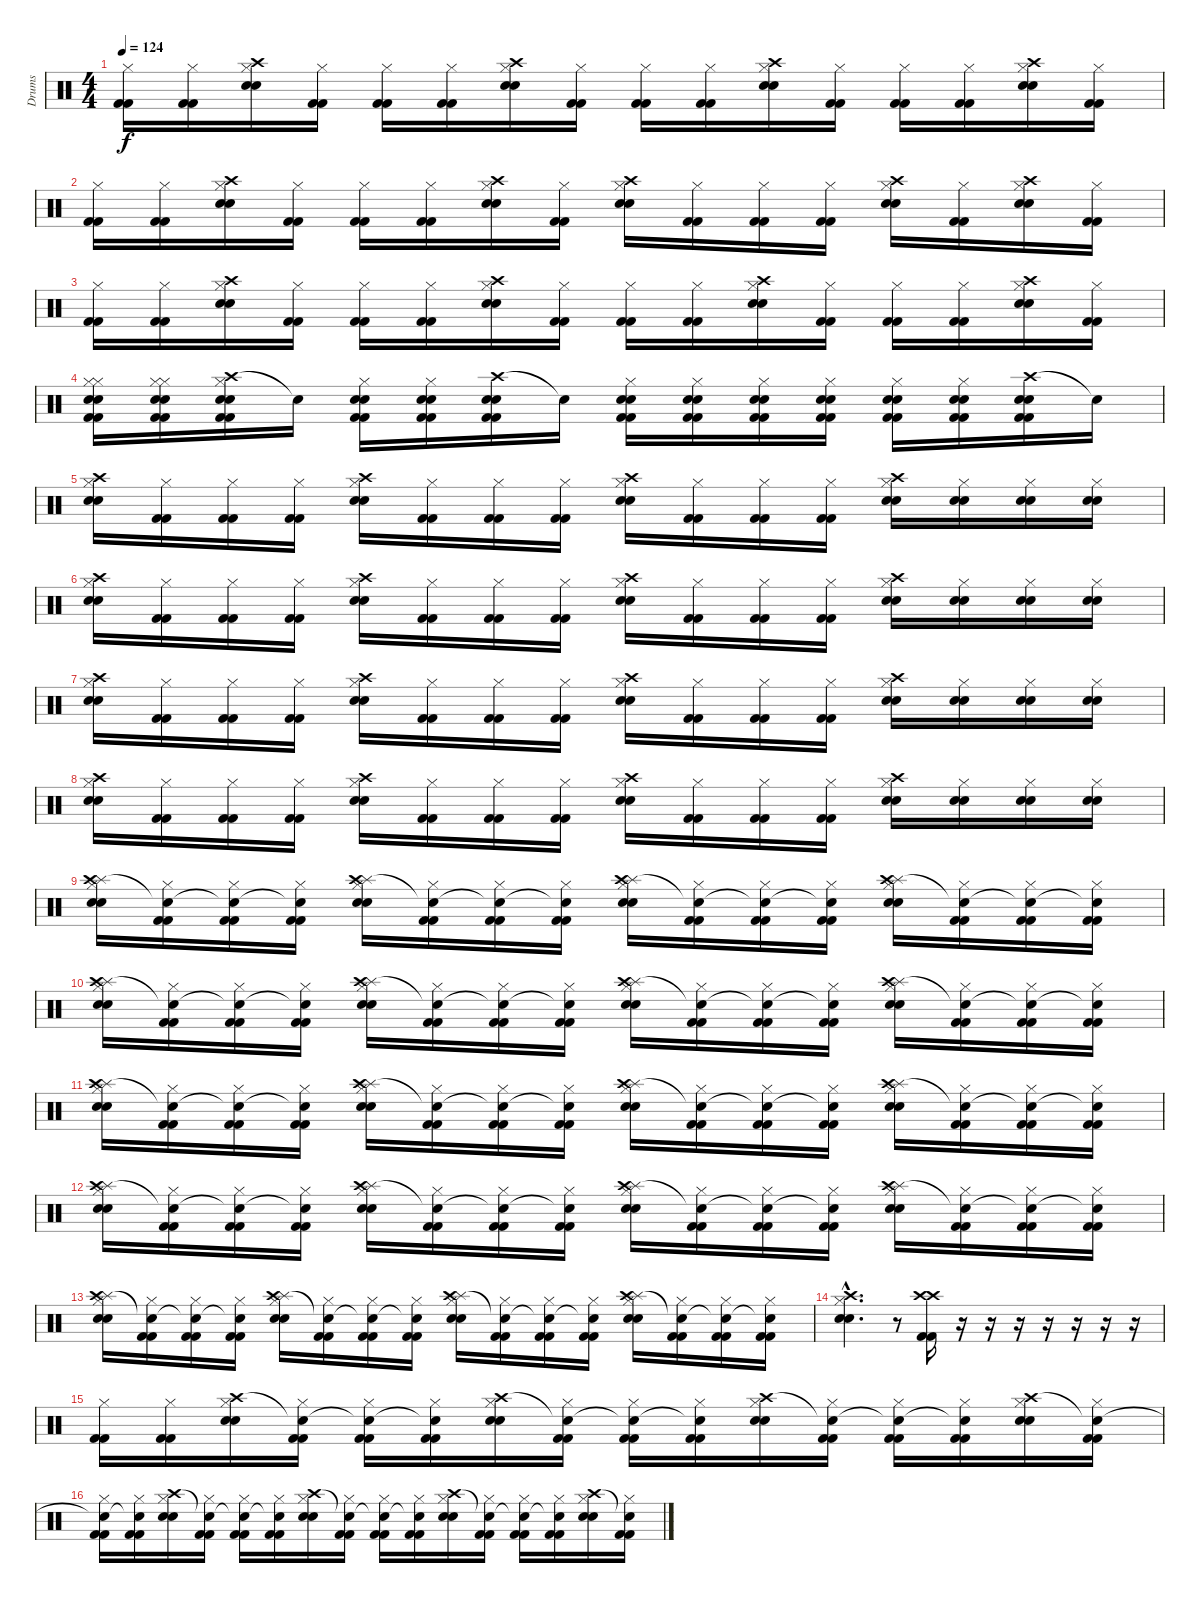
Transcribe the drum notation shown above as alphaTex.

\track ("Drums" "Drums") {instrument percussion}
\staff {score}
\articulation defaults
\ts (4 4)
\tempo 124
\clef neutral
\ks c
("Hi-Hat (closed)" "Kick (hit) 2" "Kick (hit) 2").16{dy f} ("Hi-Hat (closed)" "Kick (hit) 2" "Kick (hit) 2").16 ("Crash high (hit)" "Hi-Hat (closed)" "Snare (hit) 2" "Snare (hit) 2").16 ("Hi-Hat (closed)" "Kick (hit) 2" "Kick (hit) 2").16 ("Hi-Hat (closed)" "Kick (hit) 2" "Kick (hit) 2").16 ("Hi-Hat (closed)" "Kick (hit) 2" "Kick (hit) 2").16 ("Crash high (hit)" "Hi-Hat (closed)" "Snare (hit) 2" "Snare (hit) 2").16 ("Hi-Hat (closed)" "Kick (hit) 2" "Kick (hit) 2").16 ("Hi-Hat (closed)" "Kick (hit) 2" "Kick (hit) 2").16 ("Hi-Hat (closed)" "Kick (hit) 2" "Kick (hit) 2").16 ("Crash high (hit)" "Hi-Hat (closed)" "Snare (hit) 2" "Snare (hit) 2").16 ("Hi-Hat (closed)" "Kick (hit) 2" "Kick (hit) 2").16 ("Hi-Hat (closed)" "Kick (hit) 2" "Kick (hit) 2").16 ("Hi-Hat (closed)" "Kick (hit) 2" "Kick (hit) 2").16 ("Crash high (hit)" "Hi-Hat (closed)" "Snare (hit) 2" "Snare (hit) 2").16 ("Hi-Hat (closed)" "Kick (hit) 2" "Kick (hit) 2").16 |
("Hi-Hat (closed)" "Kick (hit) 2" "Kick (hit) 2").16 ("Hi-Hat (closed)" "Kick (hit) 2" "Kick (hit) 2").16 ("Crash high (hit)" "Hi-Hat (closed)" "Snare (hit) 2" "Snare (hit) 2").16 ("Hi-Hat (closed)" "Kick (hit) 2" "Kick (hit) 2").16 ("Hi-Hat (closed)" "Kick (hit) 2" "Kick (hit) 2").16 ("Hi-Hat (closed)" "Kick (hit) 2" "Kick (hit) 2").16 ("Crash high (hit)" "Hi-Hat (closed)" "Snare (hit) 2" "Snare (hit) 2").16 ("Hi-Hat (closed)" "Kick (hit) 2" "Kick (hit) 2").16 ("Crash high (hit)" "Hi-Hat (closed)" "Snare (hit) 2" "Snare (hit) 2").16 ("Hi-Hat (closed)" "Kick (hit) 2" "Kick (hit) 2").16 ("Hi-Hat (closed)" "Kick (hit) 2" "Kick (hit) 2").16 ("Hi-Hat (closed)" "Kick (hit) 2" "Kick (hit) 2").16 ("Crash high (hit)" "Hi-Hat (closed)" "Snare (hit) 2" "Snare (hit) 2").16 ("Hi-Hat (closed)" "Kick (hit) 2" "Kick (hit) 2").16 ("Crash high (hit)" "Hi-Hat (closed)" "Snare (hit) 2" "Snare (hit) 2").16 ("Hi-Hat (closed)" "Kick (hit) 2" "Kick (hit) 2").16 |
("Hi-Hat (closed)" "Kick (hit) 2" "Kick (hit) 2").16 ("Hi-Hat (closed)" "Kick (hit) 2" "Kick (hit) 2").16 ("Crash high (hit)" "Hi-Hat (closed)" "Snare (hit) 2" "Snare (hit) 2").16 ("Hi-Hat (closed)" "Kick (hit) 2" "Kick (hit) 2").16 ("Hi-Hat (closed)" "Kick (hit) 2" "Kick (hit) 2").16 ("Hi-Hat (closed)" "Kick (hit) 2" "Kick (hit) 2").16 ("Crash high (hit)" "Hi-Hat (closed)" "Snare (hit) 2" "Snare (hit) 2").16 ("Hi-Hat (closed)" "Kick (hit) 2" "Kick (hit) 2").16 ("Hi-Hat (closed)" "Kick (hit) 2" "Kick (hit) 2").16 ("Hi-Hat (closed)" "Kick (hit) 2" "Kick (hit) 2").16 ("Crash high (hit)" "Hi-Hat (closed)" "Snare (hit) 2" "Snare (hit) 2").16 ("Hi-Hat (closed)" "Kick (hit) 2" "Kick (hit) 2").16 ("Hi-Hat (closed)" "Kick (hit) 2" "Kick (hit) 2").16 ("Hi-Hat (closed)" "Kick (hit) 2" "Kick (hit) 2").16 ("Crash high (hit)" "Hi-Hat (closed)" "Snare (hit) 2" "Snare (hit) 2").16 ("Hi-Hat (closed)" "Kick (hit) 2" "Kick (hit) 2").16 |
("Hi-Hat (closed)" "Hi-Hat (closed)" "Snare (hit) 2" "Kick (hit) 2" "Snare (hit) 2" "Kick (hit) 2").16 ("Hi-Hat (closed)" "Hi-Hat (closed)" "Snare (hit) 2" "Kick (hit) 2" "Snare (hit) 2" "Kick (hit) 2").16 ("Crash high (hit)" "Hi-Hat (closed)" "Snare (hit) 2" "Kick (hit) 2" "Snare (hit) 2" "Kick (hit) 2").16 "Snare (hit)"{t}.16 ("Hi-Hat (closed)" "Snare (hit) 2" "Kick (hit) 2" "Snare (hit) 2" "Kick (hit) 2").16 ("Hi-Hat (closed)" "Snare (hit) 2" "Kick (hit) 2" "Snare (hit) 2" "Kick (hit) 2").16 ("Crash high (hit)" "Snare (hit) 2" "Kick (hit) 2" "Snare (hit) 2" "Kick (hit) 2").16 "Snare (hit)"{t}.16 ("Hi-Hat (closed)" "Snare (hit) 2" "Kick (hit) 2" "Snare (hit) 2" "Kick (hit) 2").16 ("Hi-Hat (closed)" "Snare (hit) 2" "Kick (hit) 2" "Snare (hit) 2" "Kick (hit) 2").16 ("Hi-Hat (closed)" "Snare (hit) 2" "Kick (hit) 2" "Snare (hit) 2" "Kick (hit) 2").16 ("Hi-Hat (closed)" "Snare (hit) 2" "Kick (hit) 2" "Snare (hit) 2" "Kick (hit) 2").16 ("Hi-Hat (closed)" "Snare (hit) 2" "Kick (hit) 2" "Snare (hit) 2" "Kick (hit) 2").16 ("Hi-Hat (closed)" "Snare (hit) 2" "Kick (hit) 2" "Snare (hit) 2" "Kick (hit) 2").16 ("Crash high (hit)" "Snare (hit) 2" "Kick (hit) 2" "Snare (hit) 2" "Kick (hit) 2").16 "Snare (hit)"{t}.16 |
("Crash high (hit)" "Hi-Hat (closed)" "Snare (hit) 2" "Snare (hit) 2").16 ("Hi-Hat (closed)" "Kick (hit) 2" "Kick (hit) 2").16 ("Hi-Hat (closed)" "Kick (hit) 2" "Kick (hit) 2").16 ("Hi-Hat (closed)" "Kick (hit) 2" "Kick (hit) 2").16 ("Crash high (hit)" "Hi-Hat (closed)" "Snare (hit) 2" "Snare (hit) 2").16 ("Hi-Hat (closed)" "Kick (hit) 2" "Kick (hit) 2").16 ("Hi-Hat (closed)" "Kick (hit) 2" "Kick (hit) 2").16 ("Hi-Hat (closed)" "Kick (hit) 2" "Kick (hit) 2").16 ("Crash high (hit)" "Hi-Hat (closed)" "Snare (hit) 2" "Snare (hit) 2").16 ("Hi-Hat (closed)" "Kick (hit) 2" "Kick (hit) 2").16 ("Hi-Hat (closed)" "Kick (hit) 2" "Kick (hit) 2").16 ("Hi-Hat (closed)" "Kick (hit) 2" "Kick (hit) 2").16 ("Crash high (hit)" "Hi-Hat (closed)" "Snare (hit) 2" "Snare (hit) 2").16 ("Hi-Hat (closed)" "Snare (hit) 2" "Snare (hit) 2").16 ("Hi-Hat (closed)" "Snare (hit) 2" "Snare (hit) 2").16 ("Hi-Hat (closed)" "Snare (hit) 2" "Snare (hit) 2").16 |
("Crash high (hit)" "Hi-Hat (closed)" "Snare (hit) 2" "Snare (hit) 2").16 ("Hi-Hat (closed)" "Kick (hit) 2" "Kick (hit) 2").16 ("Hi-Hat (closed)" "Kick (hit) 2" "Kick (hit) 2").16 ("Hi-Hat (closed)" "Kick (hit) 2" "Kick (hit) 2").16 ("Crash high (hit)" "Hi-Hat (closed)" "Snare (hit) 2" "Snare (hit) 2").16 ("Hi-Hat (closed)" "Kick (hit) 2" "Kick (hit) 2").16 ("Hi-Hat (closed)" "Kick (hit) 2" "Kick (hit) 2").16 ("Hi-Hat (closed)" "Kick (hit) 2" "Kick (hit) 2").16 ("Crash high (hit)" "Hi-Hat (closed)" "Snare (hit) 2" "Snare (hit) 2").16 ("Hi-Hat (closed)" "Kick (hit) 2" "Kick (hit) 2").16 ("Hi-Hat (closed)" "Kick (hit) 2" "Kick (hit) 2").16 ("Hi-Hat (closed)" "Kick (hit) 2" "Kick (hit) 2").16 ("Crash high (hit)" "Hi-Hat (closed)" "Snare (hit) 2" "Snare (hit) 2").16 ("Hi-Hat (closed)" "Snare (hit) 2" "Snare (hit) 2").16 ("Hi-Hat (closed)" "Snare (hit) 2" "Snare (hit) 2").16 ("Hi-Hat (closed)" "Snare (hit) 2" "Snare (hit) 2").16 |
("Crash high (hit)" "Hi-Hat (closed)" "Snare (hit) 2" "Snare (hit) 2").16 ("Hi-Hat (closed)" "Kick (hit) 2" "Kick (hit) 2").16 ("Hi-Hat (closed)" "Kick (hit) 2" "Kick (hit) 2").16 ("Hi-Hat (closed)" "Kick (hit) 2" "Kick (hit) 2").16 ("Crash high (hit)" "Hi-Hat (closed)" "Snare (hit) 2" "Snare (hit) 2").16 ("Hi-Hat (closed)" "Kick (hit) 2" "Kick (hit) 2").16 ("Hi-Hat (closed)" "Kick (hit) 2" "Kick (hit) 2").16 ("Hi-Hat (closed)" "Kick (hit) 2" "Kick (hit) 2").16 ("Crash high (hit)" "Hi-Hat (closed)" "Snare (hit) 2" "Snare (hit) 2").16 ("Hi-Hat (closed)" "Kick (hit) 2" "Kick (hit) 2").16 ("Hi-Hat (closed)" "Kick (hit) 2" "Kick (hit) 2").16 ("Hi-Hat (closed)" "Kick (hit) 2" "Kick (hit) 2").16 ("Crash high (hit)" "Hi-Hat (closed)" "Snare (hit) 2" "Snare (hit) 2").16 ("Hi-Hat (closed)" "Snare (hit) 2" "Snare (hit) 2").16 ("Hi-Hat (closed)" "Snare (hit) 2" "Snare (hit) 2").16 ("Hi-Hat (closed)" "Snare (hit) 2" "Snare (hit) 2").16 |
("Crash high (hit)" "Hi-Hat (closed)" "Snare (hit) 2" "Snare (hit) 2").16 ("Hi-Hat (closed)" "Kick (hit) 2" "Kick (hit) 2").16 ("Hi-Hat (closed)" "Kick (hit) 2" "Kick (hit) 2").16 ("Hi-Hat (closed)" "Kick (hit) 2" "Kick (hit) 2").16 ("Crash high (hit)" "Hi-Hat (closed)" "Snare (hit) 2" "Snare (hit) 2").16 ("Hi-Hat (closed)" "Kick (hit) 2" "Kick (hit) 2").16 ("Hi-Hat (closed)" "Kick (hit) 2" "Kick (hit) 2").16 ("Hi-Hat (closed)" "Kick (hit) 2" "Kick (hit) 2").16 ("Crash high (hit)" "Hi-Hat (closed)" "Snare (hit) 2" "Snare (hit) 2").16 ("Hi-Hat (closed)" "Kick (hit) 2" "Kick (hit) 2").16 ("Hi-Hat (closed)" "Kick (hit) 2" "Kick (hit) 2").16 ("Hi-Hat (closed)" "Kick (hit) 2" "Kick (hit) 2").16 ("Crash high (hit)" "Hi-Hat (closed)" "Snare (hit) 2" "Snare (hit) 2").16 ("Hi-Hat (closed)" "Snare (hit) 2" "Snare (hit) 2").16 ("Hi-Hat (closed)" "Snare (hit) 2" "Snare (hit) 2").16 ("Hi-Hat (closed)" "Snare (hit) 2" "Snare (hit) 2").16 |
("Splash (hit)" "Crash high (hit)" "Hi-Hat (closed)" "Snare (hit) 2" "Snare (hit) 2").16 ("Snare (hit)"{t} "Hi-Hat (closed)" "Kick (hit) 2" "Kick (hit) 2").16 ("Snare (hit)"{t} "Hi-Hat (closed)" "Kick (hit) 2" "Kick (hit) 2").16 ("Snare (hit)"{t} "Hi-Hat (closed)" "Kick (hit) 2" "Kick (hit) 2").16 ("Splash (hit)" "Crash high (hit)" "Hi-Hat (closed)" "Snare (hit) 2" "Snare (hit) 2").16 ("Snare (hit)"{t} "Hi-Hat (closed)" "Kick (hit) 2" "Kick (hit) 2").16 ("Snare (hit)"{t} "Hi-Hat (closed)" "Kick (hit) 2" "Kick (hit) 2").16 ("Snare (hit)"{t} "Hi-Hat (closed)" "Kick (hit) 2" "Kick (hit) 2").16 ("Splash (hit)" "Crash high (hit)" "Hi-Hat (closed)" "Snare (hit) 2" "Snare (hit) 2").16 ("Snare (hit)"{t} "Hi-Hat (closed)" "Kick (hit) 2" "Kick (hit) 2").16 ("Snare (hit)"{t} "Hi-Hat (closed)" "Kick (hit) 2" "Kick (hit) 2").16 ("Snare (hit)"{t} "Hi-Hat (closed)" "Kick (hit) 2" "Kick (hit) 2").16 ("Splash (hit)" "Crash high (hit)" "Hi-Hat (closed)" "Snare (hit) 2" "Snare (hit) 2").16 ("Snare (hit)"{t} "Hi-Hat (closed)" "Kick (hit) 2" "Kick (hit) 2").16 ("Snare (hit)"{t} "Hi-Hat (closed)" "Kick (hit) 2" "Kick (hit) 2").16 ("Snare (hit)"{t} "Hi-Hat (closed)" "Kick (hit) 2" "Kick (hit) 2").16 |
("Splash (hit)" "Crash high (hit)" "Hi-Hat (closed)" "Snare (hit) 2" "Snare (hit) 2").16 ("Snare (hit)"{t} "Hi-Hat (closed)" "Kick (hit) 2" "Kick (hit) 2").16 ("Snare (hit)"{t} "Hi-Hat (closed)" "Kick (hit) 2" "Kick (hit) 2").16 ("Snare (hit)"{t} "Hi-Hat (closed)" "Kick (hit) 2" "Kick (hit) 2").16 ("Splash (hit)" "Crash high (hit)" "Hi-Hat (closed)" "Snare (hit) 2" "Snare (hit) 2").16 ("Snare (hit)"{t} "Hi-Hat (closed)" "Kick (hit) 2" "Kick (hit) 2").16 ("Snare (hit)"{t} "Hi-Hat (closed)" "Kick (hit) 2" "Kick (hit) 2").16 ("Snare (hit)"{t} "Hi-Hat (closed)" "Kick (hit) 2" "Kick (hit) 2").16 ("Splash (hit)" "Crash high (hit)" "Hi-Hat (closed)" "Snare (hit) 2" "Snare (hit) 2").16 ("Snare (hit)"{t} "Hi-Hat (closed)" "Kick (hit) 2" "Kick (hit) 2").16 ("Snare (hit)"{t} "Hi-Hat (closed)" "Kick (hit) 2" "Kick (hit) 2").16 ("Snare (hit)"{t} "Hi-Hat (closed)" "Kick (hit) 2" "Kick (hit) 2").16 ("Splash (hit)" "Crash high (hit)" "Hi-Hat (closed)" "Snare (hit) 2" "Snare (hit) 2").16 ("Snare (hit)"{t} "Hi-Hat (closed)" "Kick (hit) 2" "Kick (hit) 2").16 ("Snare (hit)"{t} "Hi-Hat (closed)" "Kick (hit) 2" "Kick (hit) 2").16 ("Snare (hit)"{t} "Hi-Hat (closed)" "Kick (hit) 2" "Kick (hit) 2").16 |
("Splash (hit)" "Crash high (hit)" "Hi-Hat (closed)" "Snare (hit) 2" "Snare (hit) 2").16 ("Snare (hit)"{t} "Hi-Hat (closed)" "Kick (hit) 2" "Kick (hit) 2").16 ("Snare (hit)"{t} "Hi-Hat (closed)" "Kick (hit) 2" "Kick (hit) 2").16 ("Snare (hit)"{t} "Hi-Hat (closed)" "Kick (hit) 2" "Kick (hit) 2").16 ("Splash (hit)" "Crash high (hit)" "Hi-Hat (closed)" "Snare (hit) 2" "Snare (hit) 2").16 ("Snare (hit)"{t} "Hi-Hat (closed)" "Kick (hit) 2" "Kick (hit) 2").16 ("Snare (hit)"{t} "Hi-Hat (closed)" "Kick (hit) 2" "Kick (hit) 2").16 ("Snare (hit)"{t} "Hi-Hat (closed)" "Kick (hit) 2" "Kick (hit) 2").16 ("Splash (hit)" "Crash high (hit)" "Hi-Hat (closed)" "Snare (hit) 2" "Snare (hit) 2").16 ("Snare (hit)"{t} "Hi-Hat (closed)" "Kick (hit) 2" "Kick (hit) 2").16 ("Snare (hit)"{t} "Hi-Hat (closed)" "Kick (hit) 2" "Kick (hit) 2").16 ("Snare (hit)"{t} "Hi-Hat (closed)" "Kick (hit) 2" "Kick (hit) 2").16 ("Splash (hit)" "Crash high (hit)" "Hi-Hat (closed)" "Snare (hit) 2" "Snare (hit) 2").16 ("Snare (hit)"{t} "Hi-Hat (closed)" "Kick (hit) 2" "Kick (hit) 2").16 ("Snare (hit)"{t} "Hi-Hat (closed)" "Kick (hit) 2" "Kick (hit) 2").16 ("Snare (hit)"{t} "Hi-Hat (closed)" "Kick (hit) 2" "Kick (hit) 2").16 |
("Splash (hit)" "Crash high (hit)" "Hi-Hat (closed)" "Snare (hit) 2" "Snare (hit) 2").16 ("Snare (hit)"{t} "Hi-Hat (closed)" "Kick (hit) 2" "Kick (hit) 2").16 ("Snare (hit)"{t} "Hi-Hat (closed)" "Kick (hit) 2" "Kick (hit) 2").16 ("Snare (hit)"{t} "Hi-Hat (closed)" "Kick (hit) 2" "Kick (hit) 2").16 ("Splash (hit)" "Crash high (hit)" "Hi-Hat (closed)" "Snare (hit) 2" "Snare (hit) 2").16 ("Snare (hit)"{t} "Hi-Hat (closed)" "Kick (hit) 2" "Kick (hit) 2").16 ("Snare (hit)"{t} "Hi-Hat (closed)" "Kick (hit) 2" "Kick (hit) 2").16 ("Snare (hit)"{t} "Hi-Hat (closed)" "Kick (hit) 2" "Kick (hit) 2").16 ("Splash (hit)" "Crash high (hit)" "Hi-Hat (closed)" "Snare (hit) 2" "Snare (hit) 2").16 ("Snare (hit)"{t} "Hi-Hat (closed)" "Kick (hit) 2" "Kick (hit) 2").16 ("Snare (hit)"{t} "Hi-Hat (closed)" "Kick (hit) 2" "Kick (hit) 2").16 ("Snare (hit)"{t} "Hi-Hat (closed)" "Kick (hit) 2" "Kick (hit) 2").16 ("Splash (hit)" "Crash high (hit)" "Hi-Hat (closed)" "Snare (hit) 2" "Snare (hit) 2").16 ("Snare (hit)"{t} "Hi-Hat (closed)" "Kick (hit) 2" "Kick (hit) 2").16 ("Snare (hit)"{t} "Hi-Hat (closed)" "Kick (hit) 2" "Kick (hit) 2").16 ("Snare (hit)"{t} "Hi-Hat (closed)" "Kick (hit) 2" "Kick (hit) 2").16 |
("Splash (hit)" "Crash high (hit)" "Hi-Hat (closed)" "Snare (hit) 2" "Snare (hit) 2").16 ("Snare (hit)"{t} "Hi-Hat (closed)" "Kick (hit) 2" "Kick (hit) 2").16 ("Snare (hit)"{t} "Hi-Hat (closed)" "Kick (hit) 2" "Kick (hit) 2").16 ("Snare (hit)"{t} "Hi-Hat (closed)" "Kick (hit) 2" "Kick (hit) 2").16 ("Splash (hit)" "Crash high (hit)" "Hi-Hat (closed)" "Snare (hit) 2" "Snare (hit) 2").16 ("Snare (hit)"{t} "Hi-Hat (closed)" "Kick (hit) 2" "Kick (hit) 2").16 ("Snare (hit)"{t} "Hi-Hat (closed)" "Kick (hit) 2" "Kick (hit) 2").16 ("Snare (hit)"{t} "Hi-Hat (closed)" "Kick (hit) 2" "Kick (hit) 2").16 ("Splash (hit)" "Crash high (hit)" "Hi-Hat (closed)" "Snare (hit) 2" "Snare (hit) 2").16 ("Snare (hit)"{t} "Hi-Hat (closed)" "Kick (hit) 2" "Kick (hit) 2").16 ("Snare (hit)"{t} "Hi-Hat (closed)" "Kick (hit) 2" "Kick (hit) 2").16 ("Snare (hit)"{t} "Hi-Hat (closed)" "Kick (hit) 2" "Kick (hit) 2").16 ("Splash (hit)" "Crash high (hit)" "Hi-Hat (closed)" "Snare (hit) 2" "Snare (hit) 2").16 ("Snare (hit)"{t} "Hi-Hat (closed)" "Kick (hit) 2" "Kick (hit) 2").16 ("Snare (hit)"{t} "Hi-Hat (closed)" "Kick (hit) 2" "Kick (hit) 2").16 ("Snare (hit)"{t} "Hi-Hat (closed)" "Kick (hit) 2" "Kick (hit) 2").16 |
("Crash high (hit)"{hac} "Hi-Hat (closed)"{hac} "Snare (hit) 2"{hac} "Snare (hit) 2"{hac}).4{d} r.8 ("Crash high (hit)" "Crash high (hit)" "Kick (hit) 2" "Kick (hit) 2").16 r.16 r.16 r.16 r.16 r.16 r.16 r.16 |
("Hi-Hat (closed)" "Kick (hit) 2" "Kick (hit) 2").16 ("Hi-Hat (closed)" "Kick (hit) 2" "Kick (hit) 2").16 ("Crash high (hit)" "Hi-Hat (closed)" "Snare (hit) 2" "Snare (hit) 2").16 ("Snare (hit)"{t} "Hi-Hat (closed)" "Kick (hit) 2" "Kick (hit) 2").16 ("Snare (hit)"{t} "Hi-Hat (closed)" "Kick (hit) 2" "Kick (hit) 2").16 ("Snare (hit)"{t} "Hi-Hat (closed)" "Kick (hit) 2" "Kick (hit) 2").16 ("Crash high (hit)" "Hi-Hat (closed)" "Snare (hit) 2" "Snare (hit) 2").16 ("Snare (hit)"{t} "Hi-Hat (closed)" "Kick (hit) 2" "Kick (hit) 2").16 ("Snare (hit)"{t} "Hi-Hat (closed)" "Kick (hit) 2" "Kick (hit) 2").16 ("Snare (hit)"{t} "Hi-Hat (closed)" "Kick (hit) 2" "Kick (hit) 2").16 ("Crash high (hit)" "Hi-Hat (closed)" "Snare (hit) 2" "Snare (hit) 2").16 ("Snare (hit)"{t} "Hi-Hat (closed)" "Kick (hit) 2" "Kick (hit) 2").16 ("Snare (hit)"{t} "Hi-Hat (closed)" "Kick (hit) 2" "Kick (hit) 2").16 ("Snare (hit)"{t} "Hi-Hat (closed)" "Kick (hit) 2" "Kick (hit) 2").16 ("Crash high (hit)" "Hi-Hat (closed)" "Snare (hit) 2" "Snare (hit) 2").16 ("Snare (hit)"{t} "Hi-Hat (closed)" "Kick (hit) 2" "Kick (hit) 2").16 |
("Snare (hit)"{t} "Hi-Hat (closed)" "Kick (hit) 2" "Kick (hit) 2").16 ("Snare (hit)"{t} "Hi-Hat (closed)" "Kick (hit) 2" "Kick (hit) 2").16 ("Crash high (hit)" "Hi-Hat (closed)" "Snare (hit) 2" "Snare (hit) 2").16 ("Snare (hit)"{t} "Hi-Hat (closed)" "Kick (hit) 2" "Kick (hit) 2").16 ("Snare (hit)"{t} "Hi-Hat (closed)" "Kick (hit) 2" "Kick (hit) 2").16 ("Snare (hit)"{t} "Hi-Hat (closed)" "Kick (hit) 2" "Kick (hit) 2").16 ("Crash high (hit)" "Hi-Hat (closed)" "Snare (hit) 2" "Snare (hit) 2").16 ("Snare (hit)"{t} "Hi-Hat (closed)" "Kick (hit) 2" "Kick (hit) 2").16 ("Snare (hit)"{t} "Hi-Hat (closed)" "Kick (hit) 2" "Kick (hit) 2").16 ("Snare (hit)"{t} "Hi-Hat (closed)" "Kick (hit) 2" "Kick (hit) 2").16 ("Crash high (hit)" "Hi-Hat (closed)" "Snare (hit) 2" "Snare (hit) 2").16 ("Snare (hit)"{t} "Hi-Hat (closed)" "Kick (hit) 2" "Kick (hit) 2").16 ("Snare (hit)"{t} "Hi-Hat (closed)" "Kick (hit) 2" "Kick (hit) 2").16 ("Snare (hit)"{t} "Hi-Hat (closed)" "Kick (hit) 2" "Kick (hit) 2").16 ("Crash high (hit)" "Hi-Hat (closed)" "Snare (hit) 2" "Snare (hit) 2").16 ("Snare (hit)"{t} "Hi-Hat (closed)" "Kick (hit) 2" "Kick (hit) 2").16
